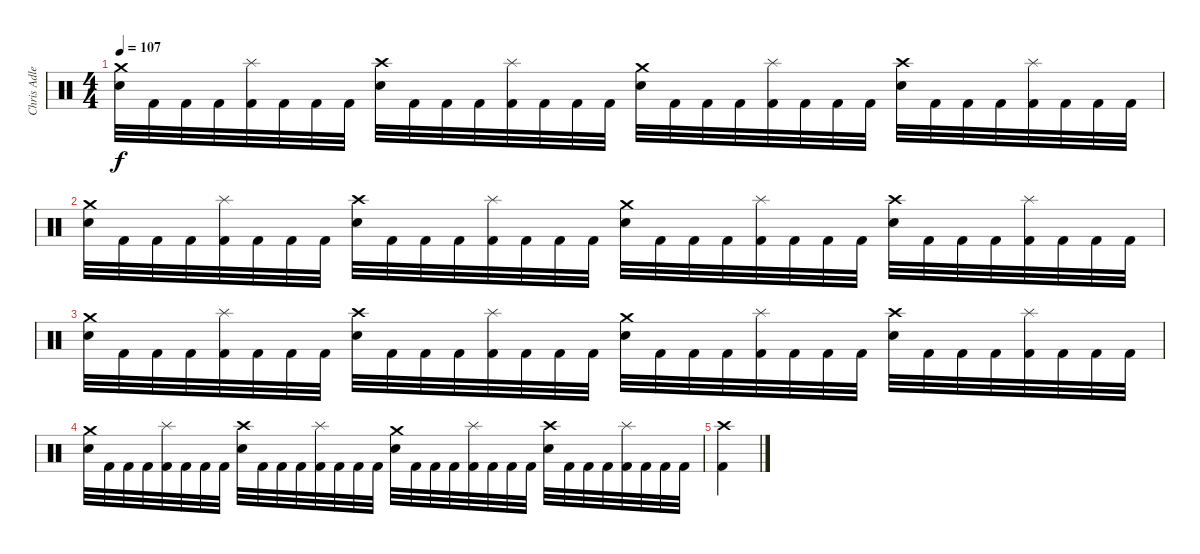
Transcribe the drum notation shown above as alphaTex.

\track ("Chris Adler" "Chris Adle") {instrument percussion}
\staff {score}
\articulation defaults
\ts (4 4)
\tempo 107
\clef neutral
\ks c
("Electric Snare (hit)" "Crash medium (hit)").32{dy f} "Kick (hit) 2".32 "Kick (hit) 2".32 "Kick (hit) 2".32 ("Kick (hit) 2" "Splash (hit)").32 "Kick (hit) 2".32 "Kick (hit) 2".32 "Kick (hit) 2".32 ("Electric Snare (hit)" "Crash high (hit)").32 "Kick (hit) 2".32 "Kick (hit) 2".32 "Kick (hit) 2".32 ("Kick (hit) 2" "Splash (hit)").32 "Kick (hit) 2".32 "Kick (hit) 2".32 "Kick (hit) 2".32 ("Electric Snare (hit)" "Crash medium (hit)").32 "Kick (hit) 2".32 "Kick (hit) 2".32 "Kick (hit) 2".32 ("Kick (hit) 2" "Splash (hit)").32 "Kick (hit) 2".32 "Kick (hit) 2".32 "Kick (hit) 2".32 ("Electric Snare (hit)" "Crash high (hit)").32 "Kick (hit) 2".32 "Kick (hit) 2".32 "Kick (hit) 2".32 ("Kick (hit) 2" "Splash (hit)").32 "Kick (hit) 2".32 "Kick (hit) 2".32 "Kick (hit) 2".32 |
("Electric Snare (hit)" "Crash medium (hit)").32 "Kick (hit) 2".32 "Kick (hit) 2".32 "Kick (hit) 2".32 ("Kick (hit) 2" "Splash (hit)").32 "Kick (hit) 2".32 "Kick (hit) 2".32 "Kick (hit) 2".32 ("Electric Snare (hit)" "Crash high (hit)").32 "Kick (hit) 2".32 "Kick (hit) 2".32 "Kick (hit) 2".32 ("Kick (hit) 2" "Splash (hit)").32 "Kick (hit) 2".32 "Kick (hit) 2".32 "Kick (hit) 2".32 ("Electric Snare (hit)" "Crash medium (hit)").32 "Kick (hit) 2".32 "Kick (hit) 2".32 "Kick (hit) 2".32 ("Kick (hit) 2" "Splash (hit)").32 "Kick (hit) 2".32 "Kick (hit) 2".32 "Kick (hit) 2".32 ("Electric Snare (hit)" "Crash high (hit)").32 "Kick (hit) 2".32 "Kick (hit) 2".32 "Kick (hit) 2".32 ("Kick (hit) 2" "Splash (hit)").32 "Kick (hit) 2".32 "Kick (hit) 2".32 "Kick (hit) 2".32 |
("Electric Snare (hit)" "Crash medium (hit)").32 "Kick (hit) 2".32 "Kick (hit) 2".32 "Kick (hit) 2".32 ("Kick (hit) 2" "Splash (hit)").32 "Kick (hit) 2".32 "Kick (hit) 2".32 "Kick (hit) 2".32 ("Electric Snare (hit)" "Crash high (hit)").32 "Kick (hit) 2".32 "Kick (hit) 2".32 "Kick (hit) 2".32 ("Kick (hit) 2" "Splash (hit)").32 "Kick (hit) 2".32 "Kick (hit) 2".32 "Kick (hit) 2".32 ("Electric Snare (hit)" "Crash medium (hit)").32 "Kick (hit) 2".32 "Kick (hit) 2".32 "Kick (hit) 2".32 ("Kick (hit) 2" "Splash (hit)").32 "Kick (hit) 2".32 "Kick (hit) 2".32 "Kick (hit) 2".32 ("Electric Snare (hit)" "Crash high (hit)").32 "Kick (hit) 2".32 "Kick (hit) 2".32 "Kick (hit) 2".32 ("Kick (hit) 2" "Splash (hit)").32 "Kick (hit) 2".32 "Kick (hit) 2".32 "Kick (hit) 2".32 |
("Electric Snare (hit)" "Crash medium (hit)").32 "Kick (hit) 2".32 "Kick (hit) 2".32 "Kick (hit) 2".32 ("Kick (hit) 2" "Splash (hit)").32 "Kick (hit) 2".32 "Kick (hit) 2".32 "Kick (hit) 2".32 ("Electric Snare (hit)" "Crash high (hit)").32 "Kick (hit) 2".32 "Kick (hit) 2".32 "Kick (hit) 2".32 ("Kick (hit) 2" "Splash (hit)").32 "Kick (hit) 2".32 "Kick (hit) 2".32 "Kick (hit) 2".32 ("Electric Snare (hit)" "Crash medium (hit)").32 "Kick (hit) 2".32 "Kick (hit) 2".32 "Kick (hit) 2".32 ("Kick (hit) 2" "Splash (hit)").32 "Kick (hit) 2".32 "Kick (hit) 2".32 "Kick (hit) 2".32 ("Electric Snare (hit)" "Crash high (hit)").32 "Kick (hit) 2".32 "Kick (hit) 2".32 "Kick (hit) 2".32 ("Kick (hit) 2" "Splash (hit)").32 "Kick (hit) 2".32 "Kick (hit) 2".32 "Kick (hit) 2".32 |
("Kick (hit) 2" "Crash high (hit)").4
